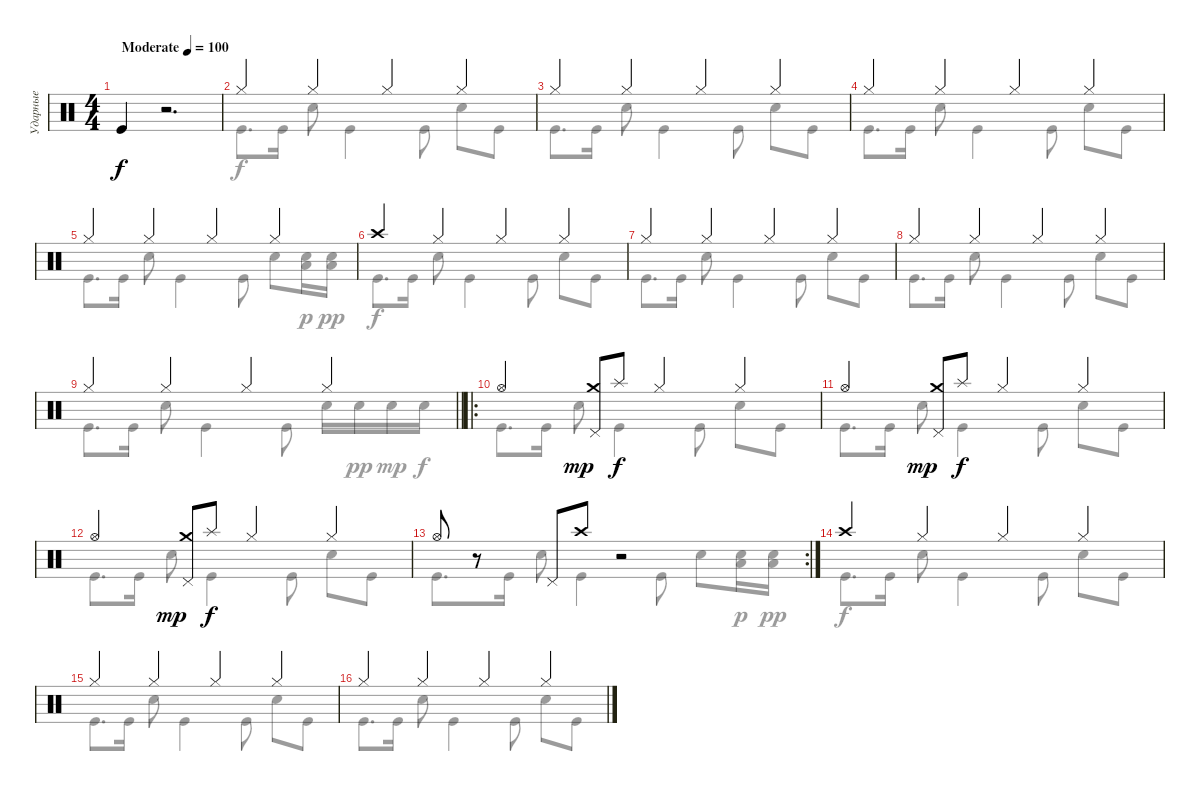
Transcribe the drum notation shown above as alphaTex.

\track ("Ударные" "Ударные") {instrument percussion}
\staff {score}
\articulation defaults
\voice
\ts (4 4)
\tempo (100 "Moderate")
\clef neutral
\ks c "Kick (hit)".4{dy f}
r.2{d} |
"Hi-Hat (closed)".4 "Hi-Hat (closed)".4 "Hi-Hat (closed)".4 "Hi-Hat (closed)".4 |
"Hi-Hat (closed)".4 "Hi-Hat (closed)".4 "Hi-Hat (closed)".4 "Hi-Hat (closed)".4 |
"Hi-Hat (closed)".4 "Hi-Hat (closed)".4 "Hi-Hat (closed)".4 "Hi-Hat (closed)".4 |
"Hi-Hat (closed)".4 "Hi-Hat (closed)".4 "Hi-Hat (closed)".4 "Hi-Hat (closed)".4 |
"Crash high (hit)".4 "Hi-Hat (closed)".4 "Hi-Hat (closed)".4 "Hi-Hat (closed)".4 |
"Hi-Hat (closed)".4 "Hi-Hat (closed)".4 "Hi-Hat (closed)".4 "Hi-Hat (closed)".4 |
"Hi-Hat (closed)".4 "Hi-Hat (closed)".4 "Hi-Hat (closed)".4 "Hi-Hat (closed)".4 |
\barLineRight lightlight "Hi-Hat (closed)".4 "Hi-Hat (closed)".4 "Hi-Hat (closed)".4 "Hi-Hat (closed)".4
|
\ro "Hi-Hat (open)".4
("Crash medium (hit)" "Pedal Hi-Hat (hit)").8{dy mp} "Splash (hit)".8{dy f} "Hi-Hat (closed)".4 "Hi-Hat (closed)".4 |
"Hi-Hat (open)".4 ("Crash medium (hit)" "Pedal Hi-Hat (hit)").8{dy mp} "Splash (hit)".8{dy f} "Hi-Hat (closed)".4 "Hi-Hat (closed)".4 |
"Hi-Hat (open)".4 ("Crash medium (hit)" "Pedal Hi-Hat (hit)").8{dy mp} "Splash (hit)".8{dy f} "Hi-Hat (closed)".4 "Hi-Hat (closed)".4 |
\rc 2 "Hi-Hat (open)".8
r.8 "Pedal Hi-Hat (hit)".8 "Crash high (hit)".8 r.2 |
"Crash high (hit)".4 "Hi-Hat (closed)".4 "Hi-Hat (closed)".4 "Hi-Hat (closed)".4 |
"Hi-Hat (closed)".4 "Hi-Hat (closed)".4 "Hi-Hat (closed)".4 "Hi-Hat (closed)".4 |
"Hi-Hat (closed)".4 "Hi-Hat (closed)".4 "Hi-Hat (closed)".4 "Hi-Hat (closed)".4
\voice
\clef neutral
\ottava regular
\simile none
\ks c
|
"Kick (hit)".8{d} "Kick (hit)".16 "Snare (hit) 2".8 "Kick (hit)".4 "Kick (hit)".8 "Snare (hit) 2".8 "Kick (hit)".8 |
"Kick (hit)".8{d} "Kick (hit)".16 "Snare (hit) 2".8 "Kick (hit)".4 "Kick (hit)".8 "Snare (hit) 2".8 "Kick (hit)".8 |
"Kick (hit)".8{d} "Kick (hit)".16 "Snare (hit) 2".8 "Kick (hit)".4 "Kick (hit)".8 "Snare (hit) 2".8 "Kick (hit)".8 |
"Kick (hit)".8{d} "Kick (hit)".16 "Snare (hit) 2".8 "Kick (hit)".4 "Kick (hit)".8 "Snare (hit) 2".8 ("Snare (hit) 2" "Low Tom (hit)").16{dy p} ("Snare (hit) 2" "Low Floor Tom (hit)").16{dy pp} |
"Kick (hit)".8{d dy f} "Kick (hit)".16 "Snare (hit) 2".8 "Kick (hit)".4 "Kick (hit)".8 "Snare (hit) 2".8 "Kick (hit)".8 |
"Kick (hit)".8{d} "Kick (hit)".16 "Snare (hit) 2".8 "Kick (hit)".4 "Kick (hit)".8 "Snare (hit) 2".8 "Kick (hit)".8 |
"Kick (hit)".8{d} "Kick (hit)".16 "Snare (hit) 2".8 "Kick (hit)".4 "Kick (hit)".8 "Snare (hit) 2".8 "Kick (hit)".8 |
\barLineRight lightlight "Kick (hit)".8{d} "Kick (hit)".16 "Snare (hit) 2".8 "Kick (hit)".4 "Kick (hit)".8 "Snare (hit) 2".16 "Snare (hit) 2".16{dy pp} "Snare (hit) 2".16{dy mp} "Snare (hit) 2".16{dy f}
|
"Kick (hit)".8{d} "Kick (hit)".16 "Snare (hit) 2".8 "Kick (hit)".4 "Kick (hit)".8 "Snare (hit) 2".8 "Kick (hit)".8 |
"Kick (hit)".8{d} "Kick (hit)".16 "Snare (hit) 2".8 "Kick (hit)".4 "Kick (hit)".8 "Snare (hit) 2".8 "Kick (hit)".8 |
"Kick (hit)".8{d} "Kick (hit)".16 "Snare (hit) 2".8 "Kick (hit)".4 "Kick (hit)".8 "Snare (hit) 2".8 "Kick (hit)".8 |
"Kick (hit)".8{d} "Kick (hit)".16 "Snare (hit) 2".8 "Kick (hit)".4 "Kick (hit)".8 "Snare (hit) 2".8 ("Snare (hit) 2" "Low Tom (hit)").16{dy p} ("Snare (hit) 2" "Low Floor Tom (hit)").16{dy pp} |
"Kick (hit)".8{d dy f} "Kick (hit)".16 "Snare (hit) 2".8 "Kick (hit)".4 "Kick (hit)".8 "Snare (hit) 2".8 "Kick (hit)".8 |
"Kick (hit)".8{d} "Kick (hit)".16 "Snare (hit) 2".8 "Kick (hit)".4 "Kick (hit)".8 "Snare (hit) 2".8 "Kick (hit)".8 |
"Kick (hit)".8{d} "Kick (hit)".16 "Snare (hit) 2".8 "Kick (hit)".4 "Kick (hit)".8 "Snare (hit) 2".8 "Kick (hit)".8
